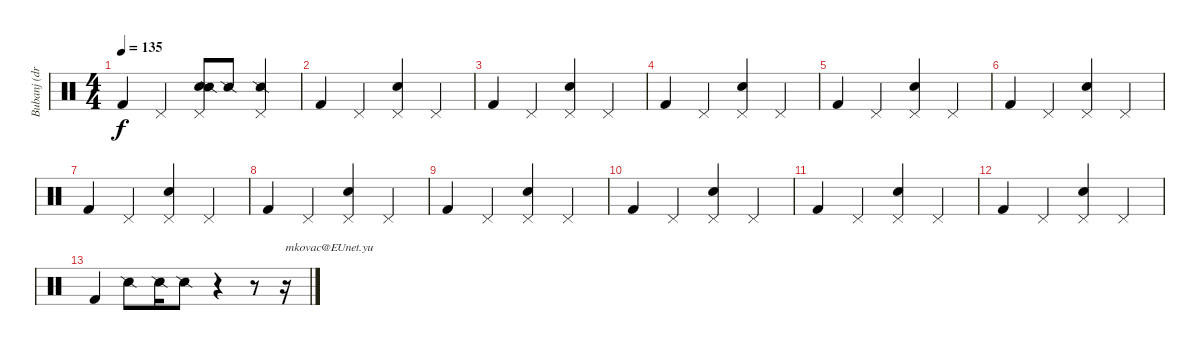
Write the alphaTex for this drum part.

\track ("Bubanj (drums)" "Bubanj (dr") {instrument percussion}
\staff {score}
\articulation defaults
\ts (4 4)
\tempo 135
\clef neutral
\ks c "Kick (hit) 2".4{dy f} "Pedal Hi-Hat (hit)".4
("Pedal Hi-Hat (hit)" "Snare (hit) 2" "Snare (side stick) 2").8 "Snare (side stick) 2".8 ("Pedal Hi-Hat (hit)" "Snare (side stick) 2").4 |
"Kick (hit) 2".4 "Pedal Hi-Hat (hit)".4 ("Pedal Hi-Hat (hit)" "Snare (hit) 2").4 "Pedal Hi-Hat (hit)".4 |
"Kick (hit) 2".4 "Pedal Hi-Hat (hit)".4 ("Pedal Hi-Hat (hit)" "Snare (hit) 2").4 "Pedal Hi-Hat (hit)".4 |
"Kick (hit) 2".4 "Pedal Hi-Hat (hit)".4 ("Pedal Hi-Hat (hit)" "Snare (hit) 2").4 "Pedal Hi-Hat (hit)".4 |
"Kick (hit) 2".4 "Pedal Hi-Hat (hit)".4 ("Pedal Hi-Hat (hit)" "Snare (hit) 2").4 "Pedal Hi-Hat (hit)".4 |
"Kick (hit) 2".4 "Pedal Hi-Hat (hit)".4 ("Pedal Hi-Hat (hit)" "Snare (hit) 2").4 "Pedal Hi-Hat (hit)".4 |
"Kick (hit) 2".4 "Pedal Hi-Hat (hit)".4 ("Pedal Hi-Hat (hit)" "Snare (hit) 2").4 "Pedal Hi-Hat (hit)".4 |
"Kick (hit) 2".4 "Pedal Hi-Hat (hit)".4 ("Pedal Hi-Hat (hit)" "Snare (hit) 2").4 "Pedal Hi-Hat (hit)".4 |
"Kick (hit) 2".4 "Pedal Hi-Hat (hit)".4 ("Pedal Hi-Hat (hit)" "Snare (hit) 2").4 "Pedal Hi-Hat (hit)".4 |
"Kick (hit) 2".4 "Pedal Hi-Hat (hit)".4 ("Pedal Hi-Hat (hit)" "Snare (hit) 2").4 "Pedal Hi-Hat (hit)".4 |
"Kick (hit) 2".4 "Pedal Hi-Hat (hit)".4 ("Pedal Hi-Hat (hit)" "Snare (hit) 2").4 "Pedal Hi-Hat (hit)".4 |
"Kick (hit) 2".4 "Pedal Hi-Hat (hit)".4 ("Pedal Hi-Hat (hit)" "Snare (hit) 2").4 "Pedal Hi-Hat (hit)".4 |
"Kick (hit) 2".4 "Snare (side stick) 2".8 "Snare (side stick) 2".16 "Snare (side stick) 2".8 r.4 r.8 r.16{txt "mkovac@EUnet.yu"}
